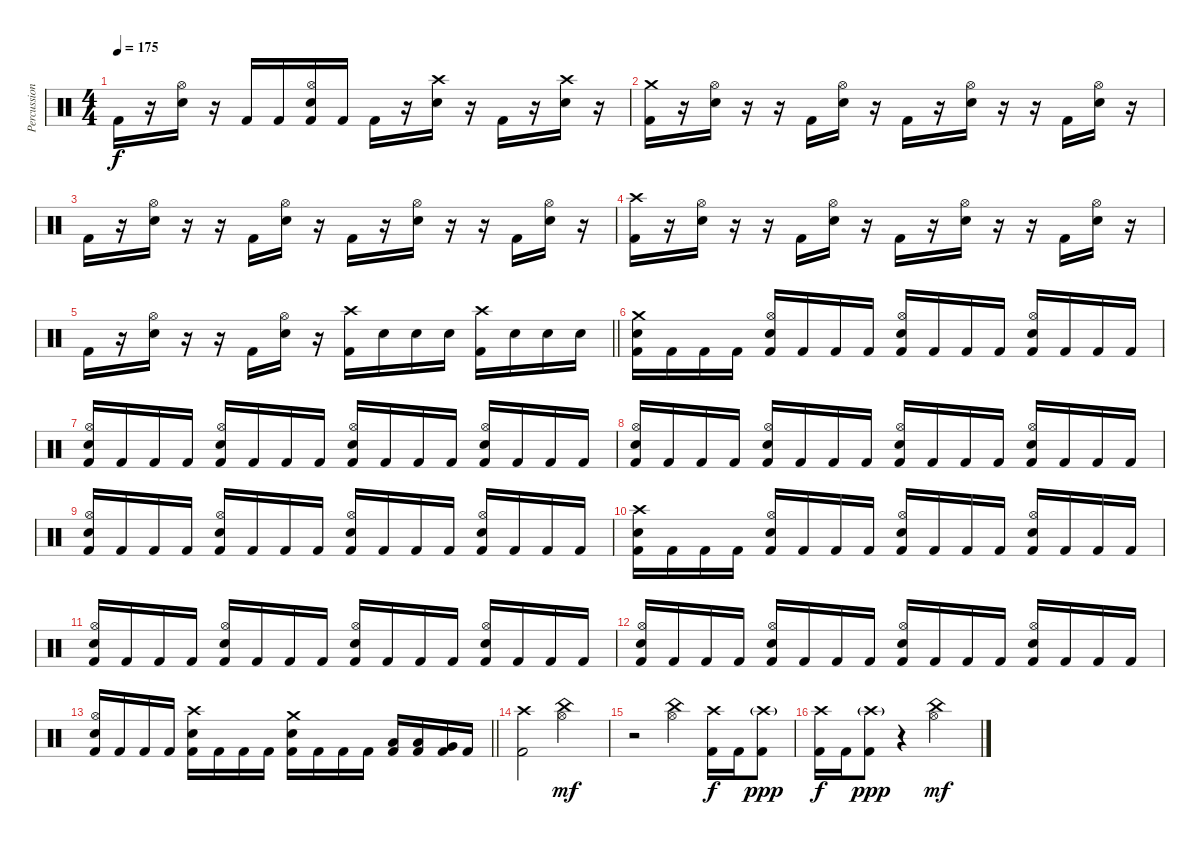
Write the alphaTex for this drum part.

\track ("Percussion" "Percussion") {instrument percussion}
\staff {score}
\articulation defaults
\ts (4 4)
\tempo 175
\clef neutral
\ks c "Kick (hit) 2".16{dy f}
r.16 ("Hi-Hat (open)" "Snare (hit) 2").16 r.16 "Kick (hit) 2".16 "Kick (hit) 2".16 ("Hi-Hat (open)" "Snare (hit) 2" "Kick (hit) 2").16 "Kick (hit) 2".16 "Kick (hit) 2".16 r.16 ("Crash high (hit)" "Snare (hit) 2").16 r.16 "Kick (hit) 2".16 r.16 ("Crash high (hit)" "Snare (hit) 2").16 r.16 |
("Crash medium (hit)" "Kick (hit) 2").16 r.16 ("Hi-Hat (open)" "Snare (hit) 2").16 r.16 r.16 "Kick (hit) 2".16 ("Hi-Hat (open)" "Snare (hit) 2").16 r.16 "Kick (hit) 2".16 r.16 ("Hi-Hat (open)" "Snare (hit) 2").16 r.16 r.16 "Kick (hit) 2".16 ("Hi-Hat (open)" "Snare (hit) 2").16 r.16 |
"Kick (hit) 2".16 r.16 ("Hi-Hat (open)" "Snare (hit) 2").16 r.16 r.16 "Kick (hit) 2".16 ("Hi-Hat (open)" "Snare (hit) 2").16 r.16 "Kick (hit) 2".16 r.16 ("Hi-Hat (open)" "Snare (hit) 2").16 r.16 r.16 "Kick (hit) 2".16 ("Hi-Hat (open)" "Snare (hit) 2").16 r.16 |
("Crash high (hit)" "Kick (hit) 2").16 r.16 ("Hi-Hat (open)" "Snare (hit) 2").16 r.16 r.16 "Kick (hit) 2".16 ("Hi-Hat (open)" "Snare (hit) 2").16 r.16 "Kick (hit) 2".16 r.16 ("Hi-Hat (open)" "Snare (hit) 2").16 r.16 r.16 "Kick (hit) 2".16 ("Hi-Hat (open)" "Snare (hit) 2").16 r.16 |
\barLineRight lightlight "Kick (hit) 2".16
r.16 ("Hi-Hat (open)" "Snare (hit) 2").16 r.16 r.16 "Kick (hit) 2".16 ("Hi-Hat (open)" "Snare (hit) 2").16 r.16 ("Crash high (hit)" "Kick (hit) 2").16 "Snare (hit) 2".16 "Snare (hit) 2".16 "Snare (hit) 2".16 ("Crash high (hit)" "Kick (hit) 2").16 "Snare (hit) 2".16 "Snare (hit) 2".16 "Snare (hit) 2".16 |
\section ("" "")
("Crash medium (hit)" "Snare (hit) 2" "Kick (hit) 2").16 "Kick (hit) 2".16 "Kick (hit) 2".16 "Kick (hit) 2".16 ("Hi-Hat (open)" "Snare (hit) 2" "Kick (hit) 2").16 "Kick (hit) 2".16 "Kick (hit) 2".16 "Kick (hit) 2".16 ("Hi-Hat (open)" "Snare (hit) 2" "Kick (hit) 2").16 "Kick (hit) 2".16 "Kick (hit) 2".16 "Kick (hit) 2".16 ("Hi-Hat (open)" "Snare (hit) 2" "Kick (hit) 2").16 "Kick (hit) 2".16 "Kick (hit) 2".16 "Kick (hit) 2".16 |
("Hi-Hat (open)" "Snare (hit) 2" "Kick (hit) 2").16 "Kick (hit) 2".16 "Kick (hit) 2".16 "Kick (hit) 2".16 ("Hi-Hat (open)" "Snare (hit) 2" "Kick (hit) 2").16 "Kick (hit) 2".16 "Kick (hit) 2".16 "Kick (hit) 2".16 ("Hi-Hat (open)" "Snare (hit) 2" "Kick (hit) 2").16 "Kick (hit) 2".16 "Kick (hit) 2".16 "Kick (hit) 2".16 ("Hi-Hat (open)" "Snare (hit) 2" "Kick (hit) 2").16 "Kick (hit) 2".16 "Kick (hit) 2".16 "Kick (hit) 2".16 |
("Hi-Hat (open)" "Snare (hit) 2" "Kick (hit) 2").16 "Kick (hit) 2".16 "Kick (hit) 2".16 "Kick (hit) 2".16 ("Hi-Hat (open)" "Snare (hit) 2" "Kick (hit) 2").16 "Kick (hit) 2".16 "Kick (hit) 2".16 "Kick (hit) 2".16 ("Hi-Hat (open)" "Snare (hit) 2" "Kick (hit) 2").16 "Kick (hit) 2".16 "Kick (hit) 2".16 "Kick (hit) 2".16 ("Hi-Hat (open)" "Snare (hit) 2" "Kick (hit) 2").16 "Kick (hit) 2".16 "Kick (hit) 2".16 "Kick (hit) 2".16 |
("Hi-Hat (open)" "Snare (hit) 2" "Kick (hit) 2").16 "Kick (hit) 2".16 "Kick (hit) 2".16 "Kick (hit) 2".16 ("Hi-Hat (open)" "Snare (hit) 2" "Kick (hit) 2").16 "Kick (hit) 2".16 "Kick (hit) 2".16 "Kick (hit) 2".16 ("Hi-Hat (open)" "Snare (hit) 2" "Kick (hit) 2").16 "Kick (hit) 2".16 "Kick (hit) 2".16 "Kick (hit) 2".16 ("Hi-Hat (open)" "Snare (hit) 2" "Kick (hit) 2").16 "Kick (hit) 2".16 "Kick (hit) 2".16 "Kick (hit) 2".16 |
("Crash high (hit)" "Snare (hit) 2" "Kick (hit) 2").16 "Kick (hit) 2".16 "Kick (hit) 2".16 "Kick (hit) 2".16 ("Hi-Hat (open)" "Snare (hit) 2" "Kick (hit) 2").16 "Kick (hit) 2".16 "Kick (hit) 2".16 "Kick (hit) 2".16 ("Hi-Hat (open)" "Snare (hit) 2" "Kick (hit) 2").16 "Kick (hit) 2".16 "Kick (hit) 2".16 "Kick (hit) 2".16 ("Hi-Hat (open)" "Snare (hit) 2" "Kick (hit) 2").16 "Kick (hit) 2".16 "Kick (hit) 2".16 "Kick (hit) 2".16 |
("Hi-Hat (open)" "Snare (hit) 2" "Kick (hit) 2").16 "Kick (hit) 2".16 "Kick (hit) 2".16 "Kick (hit) 2".16 ("Hi-Hat (open)" "Snare (hit) 2" "Kick (hit) 2").16 "Kick (hit) 2".16 "Kick (hit) 2".16 "Kick (hit) 2".16 ("Hi-Hat (open)" "Snare (hit) 2" "Kick (hit) 2").16 "Kick (hit) 2".16 "Kick (hit) 2".16 "Kick (hit) 2".16 ("Hi-Hat (open)" "Snare (hit) 2" "Kick (hit) 2").16 "Kick (hit) 2".16 "Kick (hit) 2".16 "Kick (hit) 2".16 |
("Hi-Hat (open)" "Snare (hit) 2" "Kick (hit) 2").16 "Kick (hit) 2".16 "Kick (hit) 2".16 "Kick (hit) 2".16 ("Hi-Hat (open)" "Snare (hit) 2" "Kick (hit) 2").16 "Kick (hit) 2".16 "Kick (hit) 2".16 "Kick (hit) 2".16 ("Hi-Hat (open)" "Snare (hit) 2" "Kick (hit) 2").16 "Kick (hit) 2".16 "Kick (hit) 2".16 "Kick (hit) 2".16 ("Hi-Hat (open)" "Snare (hit) 2" "Kick (hit) 2").16 "Kick (hit) 2".16 "Kick (hit) 2".16 "Kick (hit) 2".16 |
\barLineRight lightlight
("Hi-Hat (open)" "Snare (hit) 2" "Kick (hit) 2").16 "Kick (hit) 2".16 "Kick (hit) 2".16 "Kick (hit) 2".16 ("Crash high (hit)" "Snare (hit) 2" "Kick (hit) 2").16 "Kick (hit) 2".16 "Kick (hit) 2".16 "Kick (hit) 2".16 ("Crash medium (hit)" "Snare (hit) 2" "Kick (hit) 2").16 "Kick (hit) 2".16 "Kick (hit) 2".16 "Kick (hit) 2".16 ("Low Tom (hit)" "Kick (hit) 2").16 ("Low Tom (hit)" "Kick (hit) 2").16 ("Very Low Tom (hit)" "Kick (hit) 2").16 "Kick (hit) 2".16 |
\section ("" "")
("Crash high (hit)" "Kick (hit) 2").2 ("China (hit)" "Hi-Hat (open)").2{dy mf} |
r.2 ("China (hit)" "Hi-Hat (open)").4 ("Crash high (hit)" "Kick (hit) 2").16{dy f} "Kick (hit) 2".16 ("Crash high (hit)"{g} "Kick (hit) 2").8{dy ppp} |
("Crash high (hit)" "Kick (hit) 2").16{dy f} "Kick (hit) 2".16 ("Crash high (hit)"{g} "Kick (hit) 2").8{dy ppp} r.4 ("China (hit)" "Hi-Hat (open)").2{dy mf}
